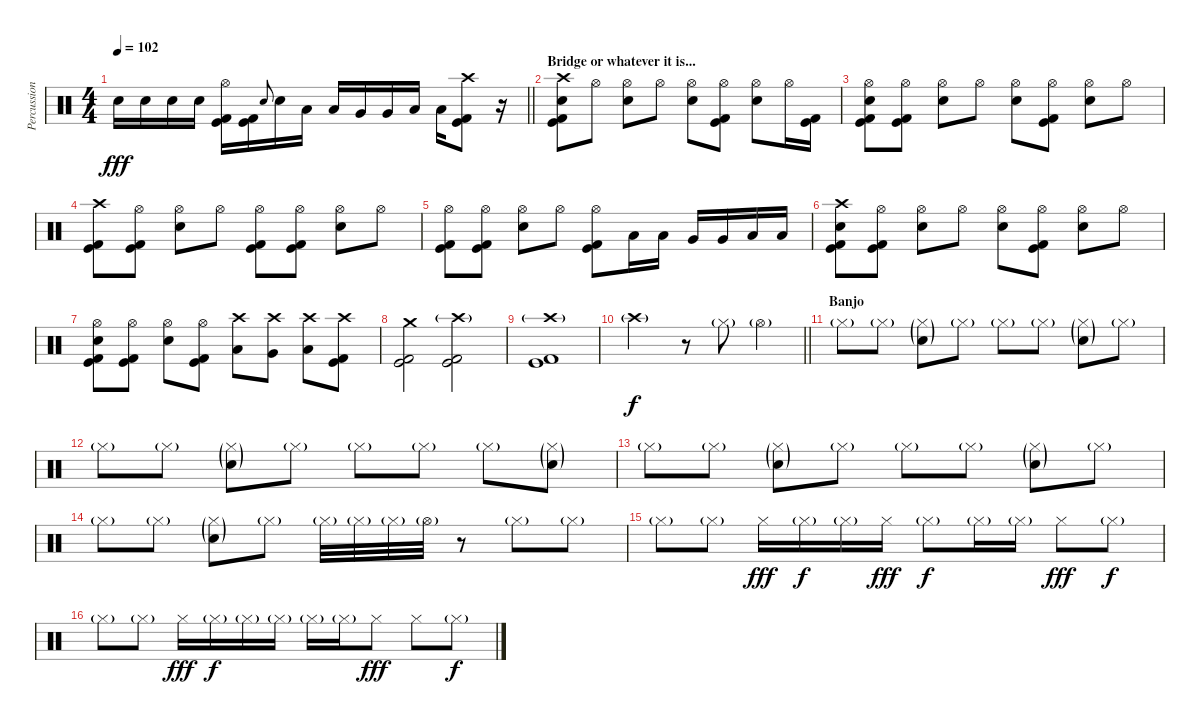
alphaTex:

\track ("Percussion" "Percussion") {instrument percussion}
\staff {score}
\articulation defaults
\ts (4 4)
\tempo 102
\clef neutral
\barLineRight lightlight
\ks c "Electric Snare (hit)".16{dy fff} "Electric Snare (hit)".16 "Electric Snare (hit)".16 "Electric Snare (hit)".16
("Hi-Hat (open)" "Kick (hit)" "Kick (hit) 2").16 ("Kick (hit)" "Kick (hit) 2").16 "Electric Snare (hit)".8{gr onbeat} "Electric Snare (hit)".16 "Low Tom (hit)".16 "Low Tom (hit)".16 "Very Low Tom (hit)".16 "Very Low Tom (hit)".16 "Low Floor Tom (hit)".16 "Low Floor Tom (hit)".16 ("Crash high (hit)" "Kick (hit)" "Kick (hit) 2").8 r.16 |
\section ("" "Bridge or whatever it is...")
("Crash high (hit)" "Electric Snare (hit)" "Kick (hit)" "Kick (hit) 2").8 "Hi-Hat (open)".8 ("Hi-Hat (open)" "Electric Snare (hit)").8 "Hi-Hat (open)".8 ("Hi-Hat (open)" "Electric Snare (hit)").8 ("Hi-Hat (open)" "Kick (hit)" "Kick (hit) 2").8 ("Hi-Hat (open)" "Electric Snare (hit)").8 "Hi-Hat (open)".16 ("Kick (hit)" "Kick (hit) 2").16 |
("Hi-Hat (open)" "Electric Snare (hit)" "Kick (hit)" "Kick (hit) 2").8 ("Hi-Hat (open)" "Kick (hit)" "Kick (hit) 2").8 ("Hi-Hat (open)" "Electric Snare (hit)").8 "Hi-Hat (open)".8 ("Hi-Hat (open)" "Electric Snare (hit)").8 ("Hi-Hat (open)" "Kick (hit)" "Kick (hit) 2").8 ("Hi-Hat (open)" "Electric Snare (hit)").8 "Hi-Hat (open)".8 |
("Crash high (hit)" "Kick (hit)" "Kick (hit) 2").8 ("Hi-Hat (open)" "Kick (hit)" "Kick (hit) 2").8 ("Hi-Hat (open)" "Electric Snare (hit)").8 "Hi-Hat (open)".8 ("Hi-Hat (open)" "Kick (hit)" "Kick (hit) 2").8 ("Hi-Hat (open)" "Kick (hit)" "Kick (hit) 2").8 ("Hi-Hat (open)" "Electric Snare (hit)").8 "Hi-Hat (open)".8 |
("Hi-Hat (open)" "Kick (hit)" "Kick (hit) 2").8 ("Hi-Hat (open)" "Kick (hit)" "Kick (hit) 2").8 ("Hi-Hat (open)" "Electric Snare (hit)").8 "Hi-Hat (open)".8 ("Hi-Hat (open)" "Kick (hit)" "Kick (hit) 2").8 "Low Tom (hit)".16 "Low Tom (hit)".16 "Very Low Tom (hit)".16 "Very Low Tom (hit)".16 "Low Floor Tom (hit)".16 "Low Floor Tom (hit)".16 |
("Crash high (hit)" "Electric Snare (hit)" "Kick (hit)" "Kick (hit) 2").8 ("Hi-Hat (open)" "Kick (hit)" "Kick (hit) 2").8 ("Hi-Hat (open)" "Electric Snare (hit)").8 "Hi-Hat (open)".8 ("Hi-Hat (open)" "Electric Snare (hit)").8 ("Hi-Hat (open)" "Kick (hit)" "Kick (hit) 2").8 ("Hi-Hat (open)" "Electric Snare (hit)").8 "Hi-Hat (open)".8 |
("Hi-Hat (open)" "Electric Snare (hit)" "Kick (hit)" "Kick (hit) 2").8 ("Hi-Hat (open)" "Kick (hit)" "Kick (hit) 2").8 ("Hi-Hat (open)" "Electric Snare (hit)").8 ("Hi-Hat (open)" "Kick (hit)" "Kick (hit) 2").8 ("Crash high (hit)" "Low Tom (hit)").8 ("Crash high (hit)" "Very Low Tom (hit)").8 ("Crash high (hit)" "Low Floor Tom (hit)").8 ("Crash high (hit)" "Kick (hit)" "Kick (hit) 2").8 |
("Crash medium (hit)" "Kick (hit)" "Kick (hit) 2").2 ("Crash high (hit)"{g} "Kick (hit)" "Kick (hit) 2").2 |
("Crash high (hit)"{g} "Kick (hit)" "Kick (hit) 2").1 |
\barLineRight lightlight "Crash high (hit)"{g}.2{dy f}
r.8 "Hi-Hat (closed)"{g}.8 "Hi-Hat (open)"{g}.4 |
\section ("" "Banjo")
"Hi-Hat (closed)"{g}.8 "Hi-Hat (closed)"{g}.8 ("Hi-Hat (closed)"{g} "Electric Snare (hit)"{g}).8 "Hi-Hat (closed)"{g}.8 "Hi-Hat (closed)"{g}.8 "Hi-Hat (closed)"{g}.8 ("Hi-Hat (closed)"{g} "Electric Snare (hit)"{g}).8 "Hi-Hat (closed)"{g}.8 |
"Hi-Hat (closed)"{g}.8 "Hi-Hat (closed)"{g}.8 ("Hi-Hat (closed)"{g} "Electric Snare (hit)"{g}).8 "Hi-Hat (closed)"{g}.8 "Hi-Hat (closed)"{g}.8 "Hi-Hat (closed)"{g}.8 "Hi-Hat (closed)"{g}.8 ("Hi-Hat (closed)"{g} "Electric Snare (hit)"{g}).8 |
"Hi-Hat (closed)"{g}.8 "Hi-Hat (closed)"{g}.8 ("Hi-Hat (closed)"{g} "Electric Snare (hit)"{g}).8 "Hi-Hat (closed)"{g}.8 "Hi-Hat (closed)"{g}.8 "Hi-Hat (closed)"{g}.8 ("Hi-Hat (closed)"{g} "Electric Snare (hit)"{g}).8 "Hi-Hat (closed)"{g}.8 |
"Hi-Hat (closed)"{g}.8 "Hi-Hat (closed)"{g}.8 ("Hi-Hat (closed)"{g} "Electric Snare (hit)"{g}).8 "Hi-Hat (closed)"{g}.8 "Hi-Hat (closed)"{g}.32 "Hi-Hat (closed)"{g}.32 "Hi-Hat (closed)"{g}.32 "Hi-Hat (open)"{g}.32 r.8 "Hi-Hat (closed)"{g}.8 "Hi-Hat (closed)"{g}.8 |
"Hi-Hat (closed)"{g}.8 "Hi-Hat (closed)"{g}.8 "Hi-Hat (closed)".16{dy fff} "Hi-Hat (closed)"{g}.16{dy f} "Hi-Hat (closed)"{g}.16 "Hi-Hat (closed)".16{dy fff} "Hi-Hat (closed)"{g}.8{dy f} "Hi-Hat (closed)"{g}.16 "Hi-Hat (closed)"{g}.16 "Hi-Hat (closed)".8{dy fff} "Hi-Hat (closed)"{g}.8{dy f} |
"Hi-Hat (closed)"{g}.8 "Hi-Hat (closed)"{g}.8 "Hi-Hat (closed)".16{dy fff} "Hi-Hat (closed)"{g}.16{dy f} "Hi-Hat (closed)"{g}.16 "Hi-Hat (closed)"{g}.16 "Hi-Hat (closed)"{g}.16 "Hi-Hat (closed)"{g}.16 "Hi-Hat (closed)".8{dy fff} "Hi-Hat (closed)".8 "Hi-Hat (closed)"{g}.8{dy f}
